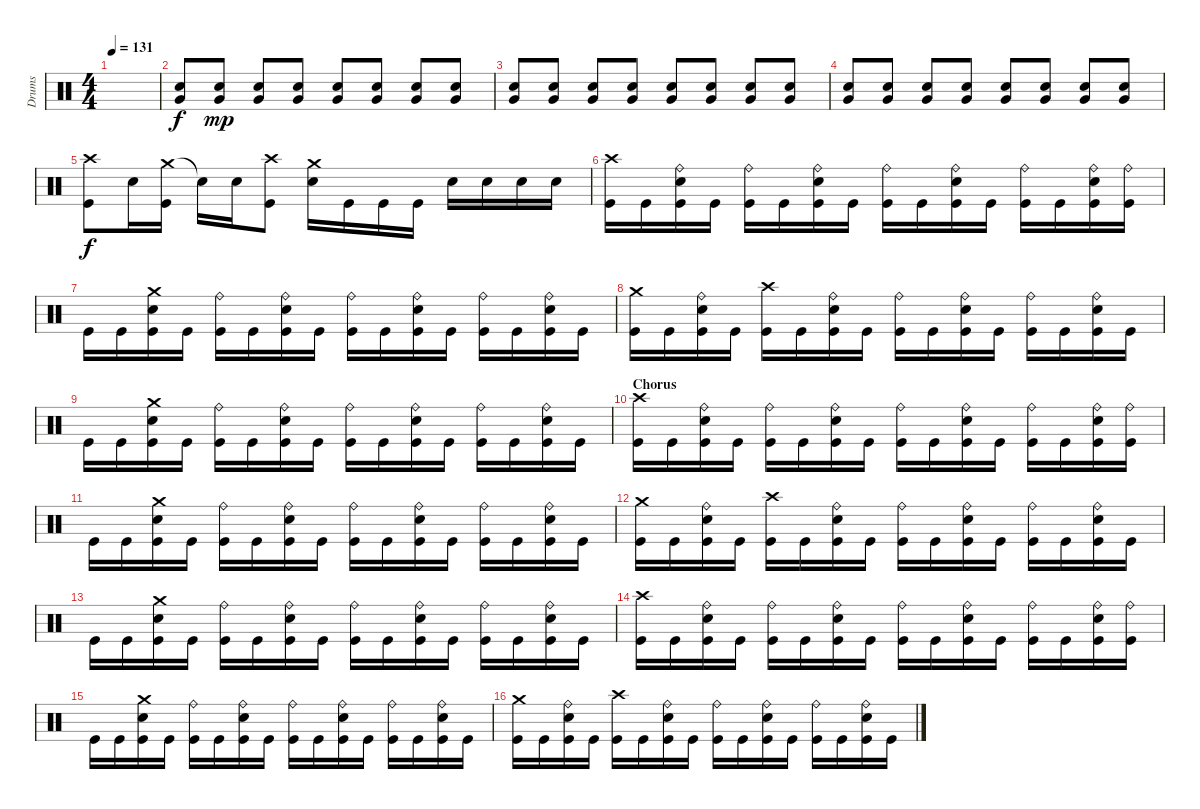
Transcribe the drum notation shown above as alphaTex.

\track ("Drums" "Drums") {instrument percussion}
\staff {score}
\articulation defaults
\ts (4 4)
\tempo 131
\clef neutral
\ks c
|
("Very Low Tom (hit)" "Snare (hit) 2").8 ("Very Low Tom (hit)" "Snare (hit) 2").8{dy mp} ("Very Low Tom (hit)" "Snare (hit) 2").8 ("Very Low Tom (hit)" "Snare (hit) 2").8 ("Very Low Tom (hit)" "Snare (hit) 2").8 ("Very Low Tom (hit)" "Snare (hit) 2").8 ("Very Low Tom (hit)" "Snare (hit) 2").8 ("Very Low Tom (hit)" "Snare (hit) 2").8 |
("Very Low Tom (hit)" "Snare (hit) 2").8 ("Very Low Tom (hit)" "Snare (hit) 2").8 ("Very Low Tom (hit)" "Snare (hit) 2").8 ("Very Low Tom (hit)" "Snare (hit) 2").8 ("Very Low Tom (hit)" "Snare (hit) 2").8 ("Very Low Tom (hit)" "Snare (hit) 2").8 ("Very Low Tom (hit)" "Snare (hit) 2").8 ("Very Low Tom (hit)" "Snare (hit) 2").8 |
("Very Low Tom (hit)" "Snare (hit) 2").8 ("Very Low Tom (hit)" "Snare (hit) 2").8 ("Very Low Tom (hit)" "Snare (hit) 2").8 ("Very Low Tom (hit)" "Snare (hit) 2").8 ("Very Low Tom (hit)" "Snare (hit) 2").8 ("Very Low Tom (hit)" "Snare (hit) 2").8 ("Very Low Tom (hit)" "Snare (hit) 2").8 ("Very Low Tom (hit)" "Snare (hit) 2").8 |
("Crash high (hit)" "Kick (hit)").8{dy f} "Snare (hit) 2".16 ("Crash medium (hit)" "Kick (hit)").16 "Snare (hit)"{t}.16 "Snare (hit) 2".16 ("Crash high (hit)" "Kick (hit)").8 ("Crash medium (hit)" "Snare (hit) 2").16 "Kick (hit)".16 "Kick (hit)".16 "Kick (hit)".16 "Snare (hit) 2".16 "Snare (hit) 2".16 "Snare (hit) 2".16 "Snare (hit) 2".16 |
("Crash high (hit)" "Kick (hit)").16 "Kick (hit)".16 ("Ride (bell)" "Snare (hit) 2" "Kick (hit)").16 "Kick (hit)".16 ("Ride (bell)" "Kick (hit)").16 "Kick (hit)".16 ("Ride (bell)" "Snare (hit) 2" "Kick (hit)").16 "Kick (hit)".16 ("Ride (bell)" "Kick (hit)").16 "Kick (hit)".16 ("Ride (bell)" "Snare (hit) 2" "Kick (hit)").16 "Kick (hit)".16 ("Ride (bell)" "Kick (hit)").16 "Kick (hit)".16 ("Ride (bell)" "Snare (hit) 2" "Kick (hit)").16 ("Ride (bell)" "Kick (hit)").16 |
"Kick (hit)".16 "Kick (hit)".16 ("Crash medium (hit)" "Snare (hit) 2" "Kick (hit)").16 "Kick (hit)".16 ("Ride (bell)" "Kick (hit)").16 "Kick (hit)".16 ("Ride (bell)" "Snare (hit) 2" "Kick (hit)").16 "Kick (hit)".16 ("Ride (bell)" "Kick (hit)").16 "Kick (hit)".16 ("Ride (bell)" "Snare (hit) 2" "Kick (hit)").16 "Kick (hit)".16 ("Ride (bell)" "Kick (hit)").16 "Kick (hit)".16 ("Ride (bell)" "Snare (hit) 2" "Kick (hit)").16 "Kick (hit)".16 |
("Crash medium (hit)" "Kick (hit)").16 "Kick (hit)".16 ("Ride (bell)" "Snare (hit) 2" "Kick (hit)").16 "Kick (hit)".16 ("Crash high (hit)" "Kick (hit)").16 "Kick (hit)".16 ("Ride (bell)" "Snare (hit) 2" "Kick (hit)").16 "Kick (hit)".16 ("Ride (bell)" "Kick (hit)").16 "Kick (hit)".16 ("Ride (bell)" "Snare (hit) 2" "Kick (hit)").16 "Kick (hit)".16 ("Ride (bell)" "Kick (hit)").16 "Kick (hit)".16 ("Ride (bell)" "Snare (hit) 2" "Kick (hit)").16 "Kick (hit)".16 |
"Kick (hit)".16 "Kick (hit)".16 ("Crash medium (hit)" "Snare (hit) 2" "Kick (hit)").16 "Kick (hit)".16 ("Ride (bell)" "Kick (hit)").16 "Kick (hit)".16 ("Ride (bell)" "Snare (hit) 2" "Kick (hit)").16 "Kick (hit)".16 ("Ride (bell)" "Kick (hit)").16 "Kick (hit)".16 ("Ride (bell)" "Snare (hit) 2" "Kick (hit)").16 "Kick (hit)".16 ("Ride (bell)" "Kick (hit)").16 "Kick (hit)".16 ("Ride (bell)" "Snare (hit) 2" "Kick (hit)").16 "Kick (hit)".16 |
\section ("" "Chorus")
("Crash high (hit)" "Kick (hit)").16 "Kick (hit)".16 ("Ride (bell)" "Snare (hit) 2" "Kick (hit)").16 "Kick (hit)".16 ("Ride (bell)" "Kick (hit)").16 "Kick (hit)".16 ("Ride (bell)" "Snare (hit) 2" "Kick (hit)").16 "Kick (hit)".16 ("Ride (bell)" "Kick (hit)").16 "Kick (hit)".16 ("Ride (bell)" "Snare (hit) 2" "Kick (hit)").16 "Kick (hit)".16 ("Ride (bell)" "Kick (hit)").16 "Kick (hit)".16 ("Ride (bell)" "Snare (hit) 2" "Kick (hit)").16 ("Ride (bell)" "Kick (hit)").16 |
"Kick (hit)".16 "Kick (hit)".16 ("Crash medium (hit)" "Snare (hit) 2" "Kick (hit)").16 "Kick (hit)".16 ("Ride (bell)" "Kick (hit)").16 "Kick (hit)".16 ("Ride (bell)" "Snare (hit) 2" "Kick (hit)").16 "Kick (hit)".16 ("Ride (bell)" "Kick (hit)").16 "Kick (hit)".16 ("Ride (bell)" "Snare (hit) 2" "Kick (hit)").16 "Kick (hit)".16 ("Ride (bell)" "Kick (hit)").16 "Kick (hit)".16 ("Ride (bell)" "Snare (hit) 2" "Kick (hit)").16 "Kick (hit)".16 |
("Crash medium (hit)" "Kick (hit)").16 "Kick (hit)".16 ("Ride (bell)" "Snare (hit) 2" "Kick (hit)").16 "Kick (hit)".16 ("Crash high (hit)" "Kick (hit)").16 "Kick (hit)".16 ("Ride (bell)" "Snare (hit) 2" "Kick (hit)").16 "Kick (hit)".16 ("Ride (bell)" "Kick (hit)").16 "Kick (hit)".16 ("Ride (bell)" "Snare (hit) 2" "Kick (hit)").16 "Kick (hit)".16 ("Ride (bell)" "Kick (hit)").16 "Kick (hit)".16 ("Ride (bell)" "Snare (hit) 2" "Kick (hit)").16 "Kick (hit)".16 |
"Kick (hit)".16 "Kick (hit)".16 ("Crash medium (hit)" "Snare (hit) 2" "Kick (hit)").16 "Kick (hit)".16 ("Ride (bell)" "Kick (hit)").16 "Kick (hit)".16 ("Ride (bell)" "Snare (hit) 2" "Kick (hit)").16 "Kick (hit)".16 ("Ride (bell)" "Kick (hit)").16 "Kick (hit)".16 ("Ride (bell)" "Snare (hit) 2" "Kick (hit)").16 "Kick (hit)".16 ("Ride (bell)" "Kick (hit)").16 "Kick (hit)".16 ("Ride (bell)" "Snare (hit) 2" "Kick (hit)").16 "Kick (hit)".16 |
("Crash high (hit)" "Kick (hit)").16 "Kick (hit)".16 ("Ride (bell)" "Snare (hit) 2" "Kick (hit)").16 "Kick (hit)".16 ("Ride (bell)" "Kick (hit)").16 "Kick (hit)".16 ("Ride (bell)" "Snare (hit) 2" "Kick (hit)").16 "Kick (hit)".16 ("Ride (bell)" "Kick (hit)").16 "Kick (hit)".16 ("Ride (bell)" "Snare (hit) 2" "Kick (hit)").16 "Kick (hit)".16 ("Ride (bell)" "Kick (hit)").16 "Kick (hit)".16 ("Ride (bell)" "Snare (hit) 2" "Kick (hit)").16 ("Ride (bell)" "Kick (hit)").16 |
"Kick (hit)".16 "Kick (hit)".16 ("Crash medium (hit)" "Snare (hit) 2" "Kick (hit)").16 "Kick (hit)".16 ("Ride (bell)" "Kick (hit)").16 "Kick (hit)".16 ("Ride (bell)" "Snare (hit) 2" "Kick (hit)").16 "Kick (hit)".16 ("Ride (bell)" "Kick (hit)").16 "Kick (hit)".16 ("Ride (bell)" "Snare (hit) 2" "Kick (hit)").16 "Kick (hit)".16 ("Ride (bell)" "Kick (hit)").16 "Kick (hit)".16 ("Ride (bell)" "Snare (hit) 2" "Kick (hit)").16 "Kick (hit)".16 |
("Crash medium (hit)" "Kick (hit)").16 "Kick (hit)".16 ("Ride (bell)" "Snare (hit) 2" "Kick (hit)").16 "Kick (hit)".16 ("Crash high (hit)" "Kick (hit)").16 "Kick (hit)".16 ("Ride (bell)" "Snare (hit) 2" "Kick (hit)").16 "Kick (hit)".16 ("Ride (bell)" "Kick (hit)").16 "Kick (hit)".16 ("Ride (bell)" "Snare (hit) 2" "Kick (hit)").16 "Kick (hit)".16 ("Ride (bell)" "Kick (hit)").16 "Kick (hit)".16 ("Ride (bell)" "Snare (hit) 2" "Kick (hit)").16 "Kick (hit)".16
